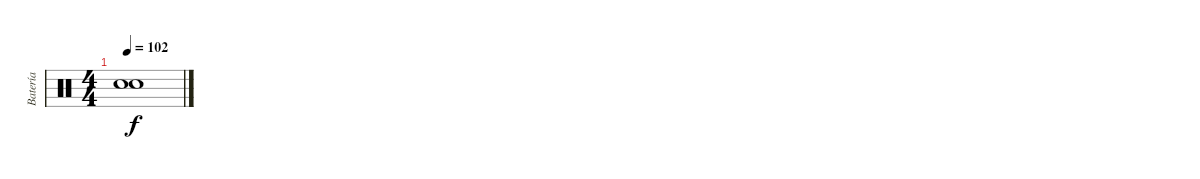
\track ("Batería" "Batería") {instrument percussion}
\staff {score}
\articulation defaults
\ts (4 4)
\tempo 102
\clef neutral
\ks c
("Snare (hit)"{t} "Snare (hit)"{t}).1{dy f}
